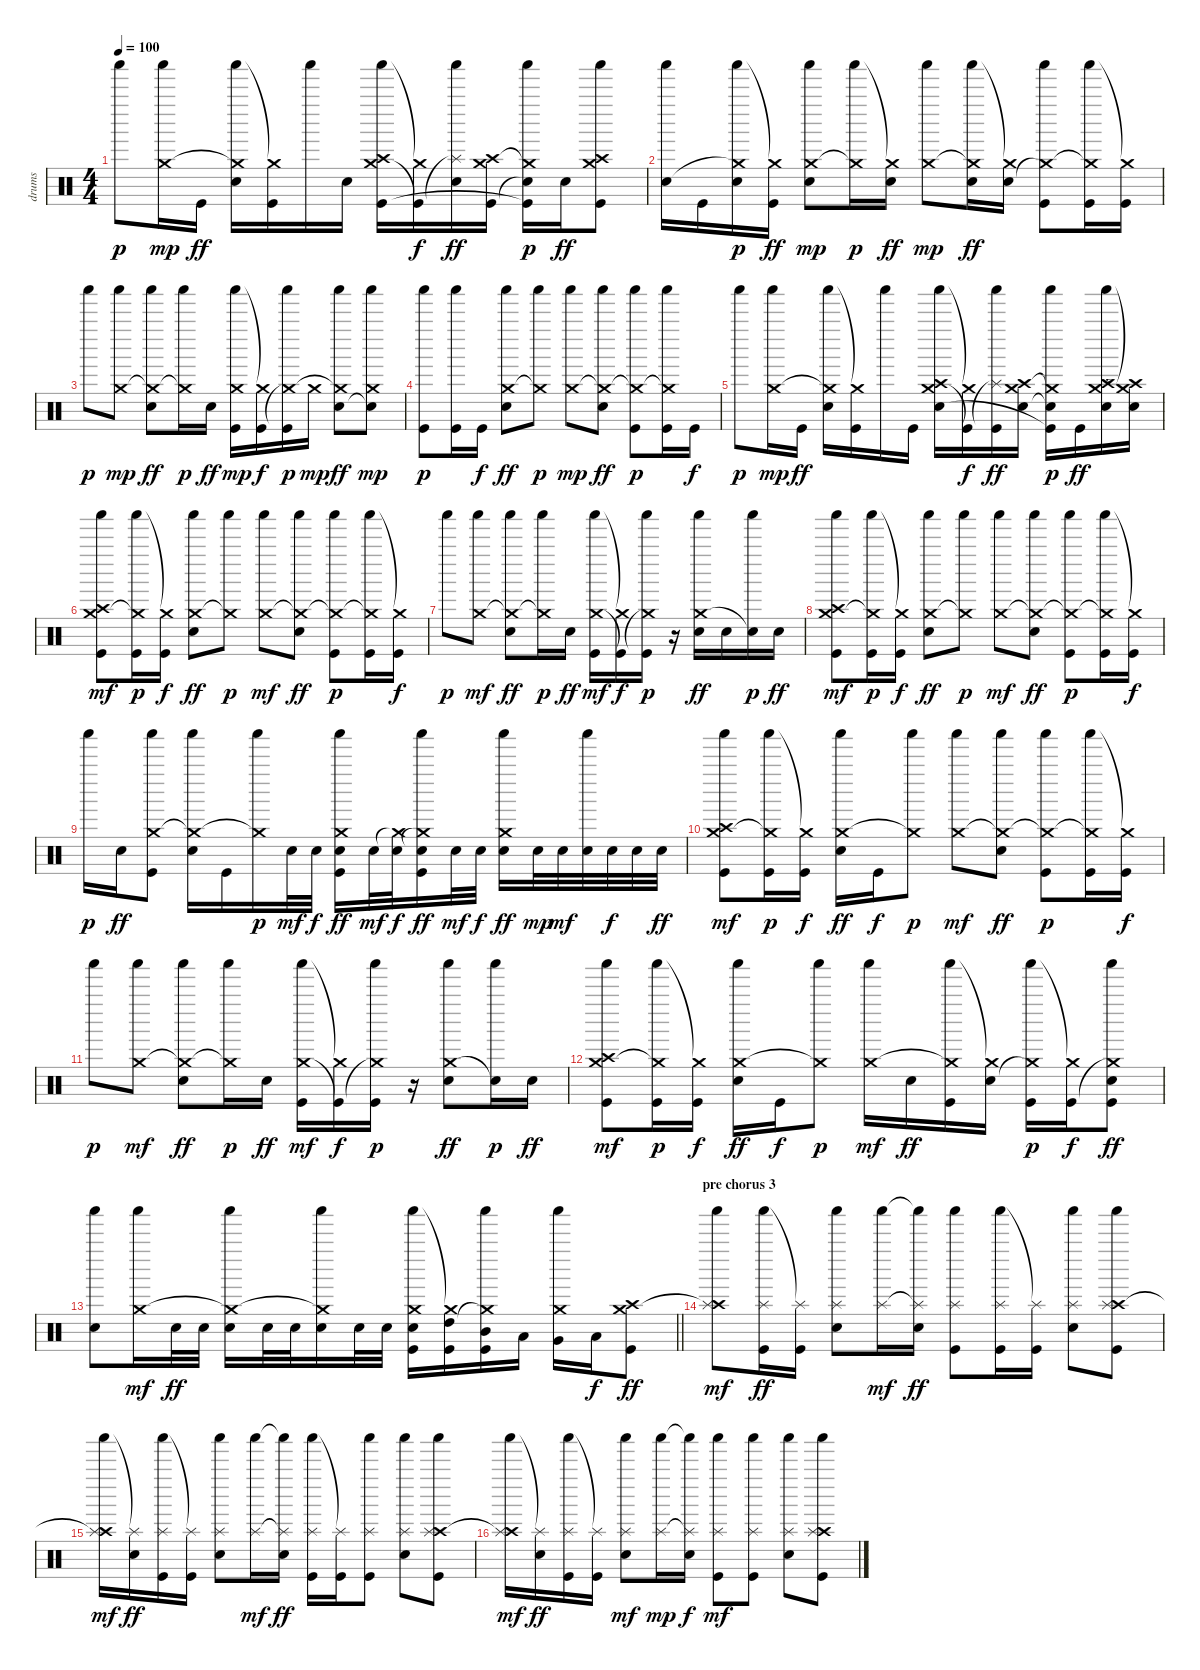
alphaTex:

\track ("drums" "drums") {instrument percussion}
\staff {score}
\articulation defaults
\ts (4 4)
\tempo 100
\clef neutral
\ks c "Shaker (hit)".8{dy p}
("Shaker (hit)" "Crash medium (hit)").16{dy mp} "Kick (hit)".16{dy ff} ("Shaker (hit)" "Crash medium (hit)"{t} "Electric Snare (hit)").16 ("Crash medium (hit)"{t} "Kick (hit)").16 "Shaker (hit)".16 "Electric Snare (hit)".16 ("Shaker (hit)" "Crash medium (hit)" "Crash high (hit)" "Kick (hit)").16 ("Crash medium (hit)"{t} "Kick (hit)"{t}).16{dy f} ("Shaker (hit)" "Splash (hit)"{t} "Electric Snare (hit)").16{dy ff} ("Crash medium (hit)" "Crash high (hit)" "Kick (hit)").16 ("Shaker (hit)" "Crash medium (hit)"{t} "Electric Snare (hit)"{t} "Kick (hit)"{t}).16{dy p} "Electric Snare (hit)".16{dy ff} ("Shaker (hit)" "Crash medium (hit)" "Crash high (hit)" "Kick (hit)").8 |
("Shaker (hit)" "Electric Snare (hit)").16 "Kick (hit)".16 ("Shaker (hit)" "Crash medium (hit)"{t} "Electric Snare (hit)").16{dy p} ("Crash medium (hit)"{t} "Kick (hit)").16{dy ff} ("Shaker (hit)" "Crash medium (hit)" "Electric Snare (hit)").8{dy mp} ("Shaker (hit)" "Crash medium (hit)"{t}).16{dy p} ("Crash medium (hit)"{t} "Electric Snare (hit)").16{dy ff} ("Shaker (hit)" "Crash medium (hit)").8{dy mp} ("Shaker (hit)" "Crash medium (hit)"{t} "Electric Snare (hit)").16{dy ff} ("Crash medium (hit)"{t} "Electric Snare (hit)").16 ("Shaker (hit)" "Crash medium (hit)"{t} "Kick (hit)").8 ("Shaker (hit)" "Crash medium (hit)"{t} "Kick (hit)").16 ("Crash medium (hit)"{t} "Kick (hit)").16 |
"Shaker (hit)".8{dy p} ("Shaker (hit)" "Crash medium (hit)").8{dy mp} ("Shaker (hit)" "Crash medium (hit)"{t} "Electric Snare (hit)").8{dy ff} ("Shaker (hit)" "Crash medium (hit)"{t}).16{dy p} "Electric Snare (hit)".16{dy ff} ("Shaker (hit)" "Crash medium (hit)" "Kick (hit)").16{dy mp} ("Crash medium (hit)"{t} "Kick (hit)").16{dy f} ("Shaker (hit)" "Crash medium (hit)"{t} "Kick (hit)").16{dy p} "Crash medium (hit)".16{dy mp} ("Shaker (hit)" "Crash medium (hit)"{t} "Electric Snare (hit)").8{dy ff} ("Shaker (hit)" "Crash medium (hit)" "Electric Snare (hit)"{t}).8{dy mp} |
("Shaker (hit)" "Kick (hit)").8{dy p} ("Shaker (hit)" "Kick (hit)").16 "Kick (hit)".16{dy f} ("Shaker (hit)" "Crash medium (hit)" "Electric Snare (hit)").8{dy ff} ("Shaker (hit)" "Crash medium (hit)"{t}).8{dy p} ("Shaker (hit)" "Crash medium (hit)").8{dy mp} ("Shaker (hit)" "Crash medium (hit)"{t} "Electric Snare (hit)").8{dy ff} ("Shaker (hit)" "Crash medium (hit)"{t} "Kick (hit)").8{dy p} ("Shaker (hit)" "Crash medium (hit)"{t} "Kick (hit)").16 "Kick (hit)".16{dy f} |
"Shaker (hit)".8{dy p} ("Shaker (hit)" "Crash medium (hit)").16{dy mp} "Kick (hit)".16{dy ff} ("Shaker (hit)" "Crash medium (hit)"{t} "Electric Snare (hit)").16 ("Crash medium (hit)"{t} "Kick (hit)").16 "Shaker (hit)".16 "Kick (hit)".16 ("Shaker (hit)" "Crash medium (hit)" "Crash high (hit)" "Electric Snare (hit)").16 ("Crash medium (hit)"{t} "Kick (hit)"{t}).16{dy f} ("Shaker (hit)" "Splash (hit)"{t} "Kick (hit)").16{dy ff} ("Crash medium (hit)" "Crash high (hit)" "Electric Snare (hit)").16 ("Shaker (hit)" "Crash medium (hit)"{t} "Electric Snare (hit)"{t} "Kick (hit)"{t}).16{dy p} "Kick (hit)".16{dy ff} ("Shaker (hit)" "Crash medium (hit)" "Crash high (hit)" "Electric Snare (hit)").16 ("Crash medium (hit)"{t} "Crash high (hit)"{t} "Electric Snare (hit)").16 |
("Shaker (hit)" "Crash medium (hit)" "Crash high (hit)" "Kick (hit)").8{dy mf} ("Shaker (hit)" "Crash medium (hit)"{t} "Kick (hit)").16{dy p} ("Crash medium (hit)"{t} "Kick (hit)").16{dy f} ("Shaker (hit)" "Crash medium (hit)" "Electric Snare (hit)").8{dy ff} ("Shaker (hit)" "Crash medium (hit)"{t}).8{dy p} ("Shaker (hit)" "Crash medium (hit)").8{dy mf} ("Shaker (hit)" "Crash medium (hit)"{t} "Electric Snare (hit)").8{dy ff} ("Shaker (hit)" "Crash medium (hit)"{t} "Kick (hit)").8{dy p} ("Shaker (hit)" "Crash medium (hit)"{t} "Kick (hit)").16 ("Crash medium (hit)"{t} "Kick (hit)").16{dy f} |
"Shaker (hit)".8{dy p} ("Shaker (hit)" "Crash medium (hit)").8{dy mf} ("Shaker (hit)" "Crash medium (hit)"{t} "Electric Snare (hit)").8{dy ff} ("Shaker (hit)" "Crash medium (hit)"{t}).16{dy p} "Electric Snare (hit)".16{dy ff} ("Shaker (hit)" "Crash medium (hit)" "Kick (hit)").16{dy mf} ("Crash medium (hit)"{t} "Kick (hit)"{t}).16{dy f} ("Shaker (hit)" "Crash medium (hit)"{t} "Kick (hit)").16{dy p} r.16 ("Shaker (hit)" "Crash medium (hit)" "Electric Snare (hit)").16{dy ff} "Electric Snare (hit)".16 ("Shaker (hit)" "Electric Snare (hit)"{t}).16{dy p} "Electric Snare (hit)".16{dy ff} |
("Shaker (hit)" "Crash medium (hit)" "Crash high (hit)" "Kick (hit)").8{dy mf} ("Shaker (hit)" "Crash medium (hit)"{t} "Kick (hit)").16{dy p} ("Crash medium (hit)"{t} "Kick (hit)").16{dy f} ("Shaker (hit)" "Crash medium (hit)" "Electric Snare (hit)").8{dy ff} ("Shaker (hit)" "Crash medium (hit)"{t}).8{dy p} ("Shaker (hit)" "Crash medium (hit)").8{dy mf} ("Shaker (hit)" "Crash medium (hit)"{t} "Electric Snare (hit)").8{dy ff} ("Shaker (hit)" "Crash medium (hit)"{t} "Kick (hit)").8{dy p} ("Shaker (hit)" "Crash medium (hit)"{t} "Kick (hit)").16 ("Crash medium (hit)"{t} "Kick (hit)").16{dy f} |
"Shaker (hit)".16{dy p} "Electric Snare (hit)".16{dy ff} ("Shaker (hit)" "Crash medium (hit)" "Kick (hit)").8 ("Shaker (hit)" "Crash medium (hit)"{t} "Electric Snare (hit)").16 "Kick (hit)".16 ("Shaker (hit)" "Crash medium (hit)"{t}).16{dy p} "Electric Snare (hit)".32{dy mf} "Electric Snare (hit)".32{dy f} ("Shaker (hit)" "Crash medium (hit)" "Electric Snare (hit)" "Kick (hit)").16{dy ff} "Electric Snare (hit)".32{dy mf} ("Crash medium (hit)"{t} "Electric Snare (hit)").32{dy f} ("Shaker (hit)" "Crash medium (hit)"{t} "Electric Snare (hit)" "Kick (hit)").16{dy ff} "Electric Snare (hit)".32{dy mf} "Electric Snare (hit)".32{dy f} ("Shaker (hit)" "Crash medium (hit)" "Electric Snare (hit)").16{dy ff} "Electric Snare (hit)".32{dy mp} "Electric Snare (hit)".32{dy mf} ("Shaker (hit)" "Electric Snare (hit)").32 "Electric Snare (hit)".32{dy f} "Electric Snare (hit)".32 "Electric Snare (hit)".32{dy ff} |
("Shaker (hit)" "Crash medium (hit)" "Crash high (hit)" "Kick (hit)").8{dy mf} ("Shaker (hit)" "Crash medium (hit)"{t} "Kick (hit)").16{dy p} ("Crash medium (hit)"{t} "Kick (hit)").16{dy f} ("Shaker (hit)" "Crash medium (hit)" "Electric Snare (hit)").16{dy ff} "Kick (hit)".16{dy f} ("Shaker (hit)" "Crash medium (hit)"{t}).8{dy p} ("Shaker (hit)" "Crash medium (hit)").8{dy mf} ("Shaker (hit)" "Crash medium (hit)"{t} "Electric Snare (hit)").8{dy ff} ("Shaker (hit)" "Crash medium (hit)"{t} "Kick (hit)").8{dy p} ("Shaker (hit)" "Crash medium (hit)"{t} "Kick (hit)").16 ("Crash medium (hit)"{t} "Kick (hit)").16{dy f} |
"Shaker (hit)".8{dy p} ("Shaker (hit)" "Crash medium (hit)").8{dy mf} ("Shaker (hit)" "Crash medium (hit)"{t} "Electric Snare (hit)").8{dy ff} ("Shaker (hit)" "Crash medium (hit)"{t}).16{dy p} "Electric Snare (hit)".16{dy ff} ("Shaker (hit)" "Crash medium (hit)" "Kick (hit)").16{dy mf} ("Crash medium (hit)"{t} "Kick (hit)"{t}).16{dy f} ("Shaker (hit)" "Crash medium (hit)"{t} "Kick (hit)").16{dy p} r.16 ("Shaker (hit)" "Crash medium (hit)" "Electric Snare (hit)").8{dy ff} ("Shaker (hit)" "Electric Snare (hit)"{t}).16{dy p} "Electric Snare (hit)".16{dy ff} |
("Shaker (hit)" "Crash medium (hit)" "Crash high (hit)" "Kick (hit)").8{dy mf} ("Shaker (hit)" "Crash medium (hit)"{t} "Kick (hit)").16{dy p} ("Crash medium (hit)"{t} "Kick (hit)").16{dy f} ("Shaker (hit)" "Crash medium (hit)" "Electric Snare (hit)").16{dy ff} "Kick (hit)".16{dy f} ("Shaker (hit)" "Crash medium (hit)"{t}).8{dy p} ("Shaker (hit)" "Crash medium (hit)").16{dy mf} "Electric Snare (hit)".16{dy ff} ("Shaker (hit)" "Crash medium (hit)"{t} "Kick (hit)").16 ("Crash medium (hit)"{t} "Electric Snare (hit)").16 ("Shaker (hit)" "Crash medium (hit)"{t} "Kick (hit)").16{dy p} ("Crash medium (hit)"{t} "Kick (hit)").16{dy f} ("Shaker (hit)" "Crash medium (hit)"{t} "Electric Snare (hit)" "Kick (hit)").8{dy ff} |
\barLineRight lightlight
("Shaker (hit)" "Electric Snare (hit)").8 ("Shaker (hit)" "Crash medium (hit)").16{dy mf} "Electric Snare (hit)".32{dy ff} "Electric Snare (hit)".32 ("Shaker (hit)" "Crash medium (hit)"{t} "Electric Snare (hit)").16 "Electric Snare (hit)".32 "Electric Snare (hit)".32 ("Shaker (hit)" "Crash medium (hit)"{t} "Electric Snare (hit)").16 "Electric Snare (hit)".32 "Electric Snare (hit)".32 ("Shaker (hit)" "Crash medium (hit)" "Electric Snare (hit)" "Kick (hit)").16 ("Crash medium (hit)"{t} "High Tom (hit)" "Kick (hit)").16 ("Shaker (hit)" "Crash medium (hit)"{t} "Mid Tom (hit)" "Kick (hit)").16 "Low Tom (hit)".16 ("Shaker (hit)" "Crash medium (hit)" "Very Low Tom (hit)").16 "Low Floor Tom (hit)".16{dy f} ("Crash high (hit)" "Crash medium (hit)" "Kick (hit)").8{dy ff} |
\section ("" "pre chorus 3")
("Shaker (hit)" "Crash high (hit)"{t} "Splash (hit)").8{dy mf} ("Shaker (hit)" "Splash (hit)" "Kick (hit)").16{dy ff} ("Splash (hit)"{t} "Kick (hit)").16 ("Shaker (hit)" "Splash (hit)" "Electric Snare (hit)").8 ("Shaker (hit)" "Splash (hit)").16{dy mf} ("Shaker (hit)"{t} "Splash (hit)"{t} "Electric Snare (hit)").16{dy ff} ("Shaker (hit)" "Splash (hit)" "Kick (hit)").8 ("Shaker (hit)" "Splash (hit)" "Kick (hit)").16 ("Splash (hit)"{t} "Kick (hit)").16 ("Shaker (hit)" "Splash (hit)" "Electric Snare (hit)").8 ("Shaker (hit)" "Crash high (hit)" "Splash (hit)" "Kick (hit)").8 |
("Shaker (hit)" "Crash high (hit)"{t} "Splash (hit)").16{dy mf} ("Splash (hit)"{t} "Electric Snare (hit)").16{dy ff} ("Shaker (hit)" "Splash (hit)" "Kick (hit)").16 ("Splash (hit)"{t} "Kick (hit)").16 ("Shaker (hit)" "Splash (hit)" "Electric Snare (hit)").8 ("Shaker (hit)" "Splash (hit)").16{dy mf} ("Shaker (hit)"{t} "Splash (hit)"{t} "Electric Snare (hit)").16{dy ff} ("Shaker (hit)" "Splash (hit)" "Kick (hit)").16 ("Splash (hit)"{t} "Kick (hit)").16 ("Shaker (hit)" "Splash (hit)" "Kick (hit)").8 ("Shaker (hit)" "Splash (hit)" "Electric Snare (hit)").8 ("Shaker (hit)" "Crash high (hit)" "Splash (hit)" "Kick (hit)").8 |
("Shaker (hit)" "Crash high (hit)"{t} "Splash (hit)").16{dy mf} ("Splash (hit)"{t} "Electric Snare (hit)").16{dy ff} ("Shaker (hit)" "Splash (hit)" "Kick (hit)").16 ("Splash (hit)"{t} "Kick (hit)").16 ("Shaker (hit)" "Splash (hit)" "Electric Snare (hit)").8{dy mf} ("Shaker (hit)" "Splash (hit)").16{dy mp} ("Shaker (hit)"{t} "Splash (hit)"{t} "Electric Snare (hit)").16{dy f} ("Shaker (hit)" "Splash (hit)" "Kick (hit)").8{dy mf} ("Shaker (hit)" "Splash (hit)" "Kick (hit)").8 ("Shaker (hit)" "Splash (hit)" "Electric Snare (hit)").8 ("Shaker (hit)" "Crash high (hit)" "Splash (hit)" "Kick (hit)").8
